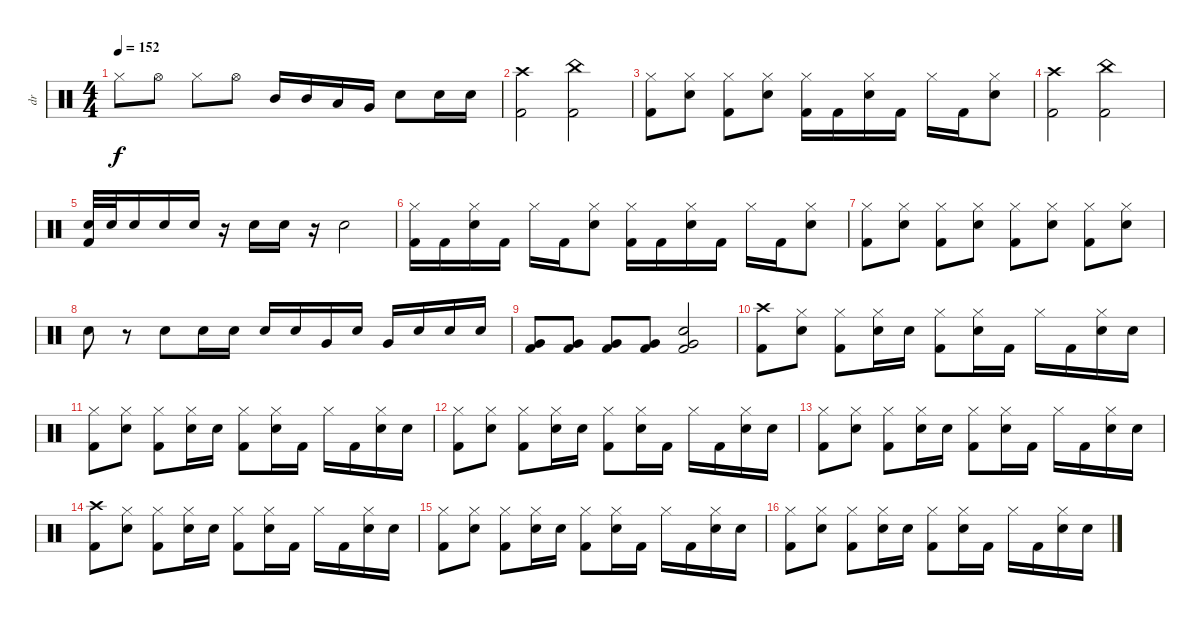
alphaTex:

\track ("dr" "dr") {instrument percussion}
\staff {score}
\articulation defaults
\ts (4 4)
\tempo 152
\clef neutral
\ks c "Hi-Hat (closed)".8{dy f} "Hi-Hat (open)".8 "Hi-Hat (closed)".8 "Hi-Hat (open)".8 "Mid Tom (hit)".16 "Mid Tom (hit)".16 "Low Tom (hit)".16 "Very Low Tom (hit)".16 "Electric Snare (hit)".8 "Electric Snare (hit)".16 "Electric Snare (hit)".16
|
("Crash high (hit)" "Kick (hit) 2").2 ("China (hit)" "Kick (hit) 2").2 |
("Hi-Hat (closed)" "Kick (hit) 2").8 ("Hi-Hat (closed)" "Electric Snare (hit)").8 ("Hi-Hat (closed)" "Kick (hit) 2").8 ("Hi-Hat (closed)" "Electric Snare (hit)").8 ("Hi-Hat (closed)" "Kick (hit) 2").16 "Kick (hit) 2".16 ("Hi-Hat (closed)" "Electric Snare (hit)").16 "Kick (hit) 2".16 "Hi-Hat (closed)".16 "Kick (hit) 2".16 ("Hi-Hat (closed)" "Electric Snare (hit)").8 |
("Crash high (hit)" "Kick (hit) 2").2 ("China (hit)" "Kick (hit) 2").2 |
("Electric Snare (hit)" "Kick (hit) 2").32 "Electric Snare (hit)".32 "Electric Snare (hit)".16 "Electric Snare (hit)".16 "Electric Snare (hit)".16 r.16 "Electric Snare (hit)".16 "Electric Snare (hit)".16 r.16 "Electric Snare (hit)".2 |
("Hi-Hat (closed)" "Kick (hit) 2").16 "Kick (hit) 2".16 ("Hi-Hat (closed)" "Electric Snare (hit)").16 "Kick (hit) 2".16 "Hi-Hat (closed)".16 "Kick (hit) 2".16 ("Hi-Hat (closed)" "Electric Snare (hit)").8 ("Hi-Hat (closed)" "Kick (hit) 2").16 "Kick (hit) 2".16 ("Hi-Hat (closed)" "Electric Snare (hit)").16 "Kick (hit) 2".16 "Hi-Hat (closed)".16 "Kick (hit) 2".16 ("Hi-Hat (closed)" "Electric Snare (hit)").8 |
("Hi-Hat (closed)" "Kick (hit) 2").8 ("Hi-Hat (closed)" "Electric Snare (hit)").8 ("Hi-Hat (closed)" "Kick (hit) 2").8 ("Hi-Hat (closed)" "Electric Snare (hit)").8 ("Hi-Hat (closed)" "Kick (hit) 2").8 ("Hi-Hat (closed)" "Electric Snare (hit)").8 ("Hi-Hat (closed)" "Kick (hit) 2").8 ("Hi-Hat (closed)" "Electric Snare (hit)").8 |
"Electric Snare (hit)".8 r.8 "Electric Snare (hit)".8 "Electric Snare (hit)".16 "Electric Snare (hit)".16 "Electric Snare (hit)".16 "Electric Snare (hit)".16 "Very Low Tom (hit)".16 "Electric Snare (hit)".16 "Very Low Tom (hit)".16 "Electric Snare (hit)".16 "Electric Snare (hit)".16 "Electric Snare (hit)".16 |
("Very Low Tom (hit)" "Kick (hit) 2").8 ("Very Low Tom (hit)" "Kick (hit) 2").8 ("Very Low Tom (hit)" "Kick (hit) 2").8 ("Very Low Tom (hit)" "Kick (hit) 2").8 ("Kick (hit) 2" "Very Low Tom (hit)" "Electric Snare (hit)").2 |
("Crash high (hit)" "Kick (hit) 2").8 ("Hi-Hat (closed)" "Electric Snare (hit)").8 ("Hi-Hat (closed)" "Kick (hit) 2").8 ("Hi-Hat (closed)" "Electric Snare (hit)").16 "Electric Snare (hit)".16 ("Hi-Hat (closed)" "Kick (hit) 2").8 ("Hi-Hat (closed)" "Electric Snare (hit)").16 "Kick (hit) 2".16 "Hi-Hat (closed)".16 "Kick (hit) 2".16 ("Hi-Hat (closed)" "Electric Snare (hit)").16 "Electric Snare (hit)".16 |
("Hi-Hat (closed)" "Kick (hit) 2").8 ("Hi-Hat (closed)" "Electric Snare (hit)").8 ("Hi-Hat (closed)" "Kick (hit) 2").8 ("Hi-Hat (closed)" "Electric Snare (hit)").16 "Electric Snare (hit)".16 ("Hi-Hat (closed)" "Kick (hit) 2").8 ("Hi-Hat (closed)" "Electric Snare (hit)").16 "Kick (hit) 2".16 "Hi-Hat (closed)".16 "Kick (hit) 2".16 ("Hi-Hat (closed)" "Electric Snare (hit)").16 "Electric Snare (hit)".16 |
("Hi-Hat (closed)" "Kick (hit) 2").8 ("Hi-Hat (closed)" "Electric Snare (hit)").8 ("Hi-Hat (closed)" "Kick (hit) 2").8 ("Hi-Hat (closed)" "Electric Snare (hit)").16 "Electric Snare (hit)".16 ("Hi-Hat (closed)" "Kick (hit) 2").8 ("Hi-Hat (closed)" "Electric Snare (hit)").16 "Kick (hit) 2".16 "Hi-Hat (closed)".16 "Kick (hit) 2".16 ("Hi-Hat (closed)" "Electric Snare (hit)").16 "Electric Snare (hit)".16 |
("Hi-Hat (closed)" "Kick (hit) 2").8 ("Hi-Hat (closed)" "Electric Snare (hit)").8 ("Hi-Hat (closed)" "Kick (hit) 2").8 ("Hi-Hat (closed)" "Electric Snare (hit)").16 "Electric Snare (hit)".16 ("Hi-Hat (closed)" "Kick (hit) 2").8 ("Hi-Hat (closed)" "Electric Snare (hit)").16 "Kick (hit) 2".16 "Hi-Hat (closed)".16 "Kick (hit) 2".16 ("Hi-Hat (closed)" "Electric Snare (hit)").16 "Electric Snare (hit)".16 |
("Crash high (hit)" "Kick (hit) 2").8 ("Hi-Hat (closed)" "Electric Snare (hit)").8 ("Hi-Hat (closed)" "Kick (hit) 2").8 ("Hi-Hat (closed)" "Electric Snare (hit)").16 "Electric Snare (hit)".16 ("Hi-Hat (closed)" "Kick (hit) 2").8 ("Hi-Hat (closed)" "Electric Snare (hit)").16 "Kick (hit) 2".16 "Hi-Hat (closed)".16 "Kick (hit) 2".16 ("Hi-Hat (closed)" "Electric Snare (hit)").16 "Electric Snare (hit)".16 |
("Hi-Hat (closed)" "Kick (hit) 2").8 ("Hi-Hat (closed)" "Electric Snare (hit)").8 ("Hi-Hat (closed)" "Kick (hit) 2").8 ("Hi-Hat (closed)" "Electric Snare (hit)").16 "Electric Snare (hit)".16 ("Hi-Hat (closed)" "Kick (hit) 2").8 ("Hi-Hat (closed)" "Electric Snare (hit)").16 "Kick (hit) 2".16 "Hi-Hat (closed)".16 "Kick (hit) 2".16 ("Hi-Hat (closed)" "Electric Snare (hit)").16 "Electric Snare (hit)".16 |
("Hi-Hat (closed)" "Kick (hit) 2").8 ("Hi-Hat (closed)" "Electric Snare (hit)").8 ("Hi-Hat (closed)" "Kick (hit) 2").8 ("Hi-Hat (closed)" "Electric Snare (hit)").16 "Electric Snare (hit)".16 ("Hi-Hat (closed)" "Kick (hit) 2").8 ("Hi-Hat (closed)" "Electric Snare (hit)").16 "Kick (hit) 2".16 "Hi-Hat (closed)".16 "Kick (hit) 2".16 ("Hi-Hat (closed)" "Electric Snare (hit)").16 "Electric Snare (hit)".16
